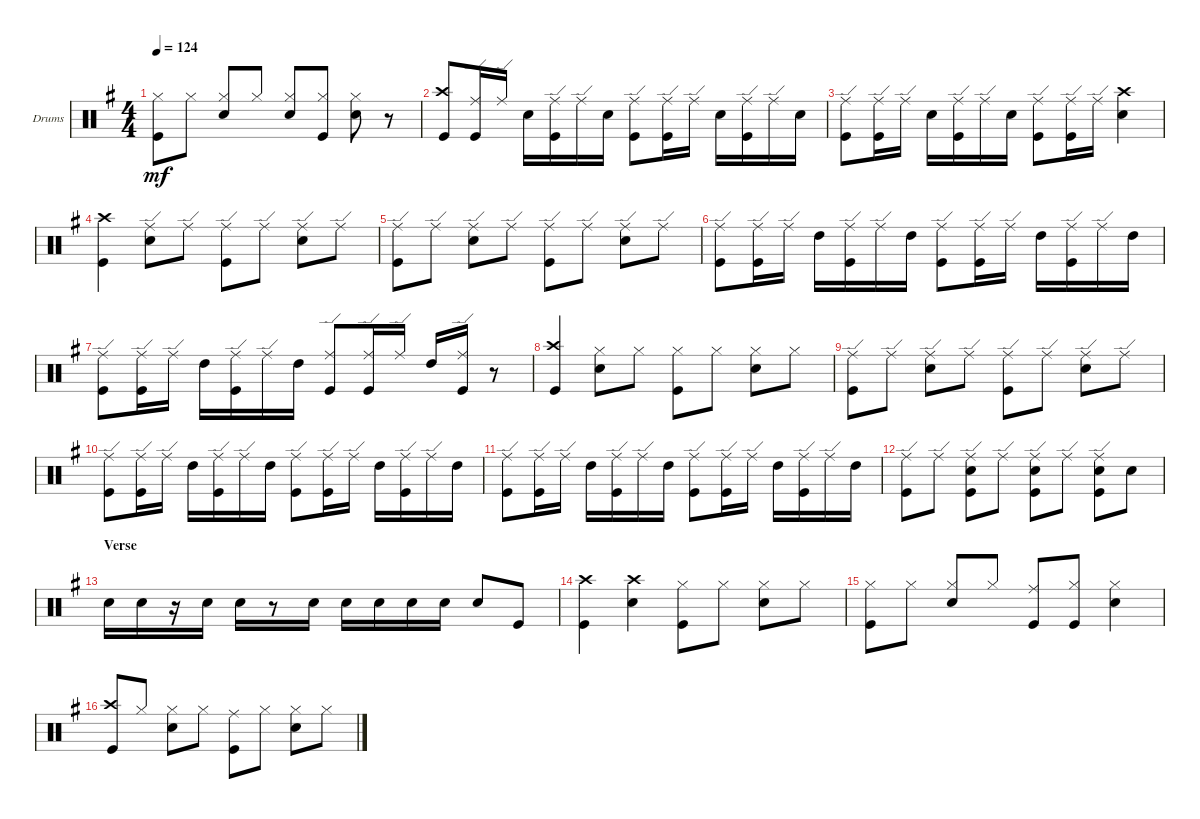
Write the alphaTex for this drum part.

\defaultSystemsLayout 4
\bracketExtendMode groupsimilarinstruments
\firstSystemTrackNameOrientation horizontal
\otherSystemsTrackNameOrientation horizontal
\track ("PETER CRISS" "Drums") {instrument percussion}
\staff {score}
\articulation defaults
\ts (4 4)
\tempo 124
\clef neutral
\scale
0.333333
\ks g
("Kick (hit)" "Hi-Hat (closed)").8{dy mf} "Hi-Hat (closed)".8 ("Snare (hit) 2" "Hi-Hat (closed)").8 "Hi-Hat (closed)".8 ("Hi-Hat (closed)" "Snare (hit) 2").8{beam invert} ("Hi-Hat (closed)" "Kick (hit)").8 ("Snare (hit) 2" "Hi-Hat (closed)").8 r.8 |
\scale
0.333333 ("Kick (hit)" "Crash high (hit)").8{beam invert} ("Ride (edge)" "Kick (hit)").16 "Ride (edge)".16 "Snare (hit) 2".16 ("Kick (hit)" "Ride (edge)").16 "Ride (edge)".16 "Snare (hit) 2".16 ("Ride (edge)" "Kick (hit)").8 ("Ride (edge)" "Kick (hit)").16 "Ride (edge)".16 "Snare (hit) 2".16 ("Kick (hit)" "Ride (edge)").16 "Ride (edge)".16 "Snare (hit) 2".16 |
\scale
0.333333 ("Kick (hit)" "Ride (edge)").8 ("Ride (edge)" "Kick (hit)").16 "Ride (edge)".16 "Snare (hit) 2".16 ("Kick (hit)" "Ride (edge)").16 "Ride (edge)".16 "Snare (hit) 2".16 ("Ride (edge)" "Kick (hit)").8 ("Ride (edge)" "Kick (hit)").16 "Ride (edge)".16 ("Snare (hit) 2" "Crash high (hit)").4 |
\scale
0.333333 ("Crash high (hit)" "Kick (hit)").4 ("Ride (edge)" "Snare (hit) 2").8 "Ride (edge)".8 ("Ride (edge)" "Kick (hit)").8 "Ride (edge)".8 ("Snare (hit) 2" "Ride (edge)").8 "Ride (edge)".8 |
\scale
0.333333 ("Ride (edge)" "Kick (hit)").8 "Ride (edge)".8 ("Snare (hit) 2" "Ride (edge)").8 "Ride (edge)".8 ("Ride (edge)" "Kick (hit)").8 "Ride (edge)".8 ("Snare (hit) 2" "Ride (edge)").8 "Ride (edge)".8 |
\scale
0.333333 ("Kick (hit)" "Ride (edge)").8 ("Ride (edge)" "Kick (hit)").16 "Ride (edge)".16 "High Tom (hit)".16 ("Kick (hit)" "Ride (edge)").16 "Ride (edge)".16 "High Tom (hit)".16 ("Ride (edge)" "Kick (hit)").8 ("Ride (edge)" "Kick (hit)").16 "Ride (edge)".16 "High Tom (hit)".16 ("Kick (hit)" "Ride (edge)").16 "Ride (edge)".16 "High Tom (hit)".16 |
\scale
0.333333 ("Kick (hit)" "Ride (edge)").8 ("Ride (edge)" "Kick (hit)").16 "Ride (edge)".16 "High Tom (hit)".16 ("Kick (hit)" "Ride (edge)").16 "Ride (edge)".16 "High Tom (hit)".16 ("Ride (edge)" "Kick (hit)").8 ("Ride (edge)" "Kick (hit)").16 "Ride (edge)".16 "High Tom (hit)".16{beam invert} ("Ride (edge)" "Kick (hit)").16 r.8 |
\scale
0.333333 ("Kick (hit)" "Crash high (hit)").4{beam invert} ("Hi-Hat (closed)" "Snare (hit) 2").8 "Hi-Hat (closed)".8 ("Hi-Hat (closed)" "Kick (hit)").8 "Hi-Hat (closed)".8 ("Hi-Hat (closed)" "Snare (hit) 2").8 "Hi-Hat (closed)".8 |
\scale
0.333333 ("Kick (hit)" "Ride (edge)").8 "Ride (edge)".8 ("Ride (edge)" "Snare (hit) 2").8 "Ride (edge)".8 ("Kick (hit)" "Ride (edge)").8 "Ride (edge)".8 ("Ride (edge)" "Snare (hit) 2").8 "Ride (edge)".8 |
\scale
0.333333 ("Kick (hit)" "Ride (edge)").8 ("Ride (edge)" "Kick (hit)").16 "Ride (edge)".16 "High Tom (hit)".16 ("Kick (hit)" "Ride (edge)").16 "Ride (edge)".16 "High Tom (hit)".16 ("Ride (edge)" "Kick (hit)").8 ("Ride (edge)" "Kick (hit)").16 "Ride (edge)".16 "High Tom (hit)".16 ("Kick (hit)" "Ride (edge)").16 "Ride (edge)".16 "High Tom (hit)".16 |
\scale
0.333333 ("Kick (hit)" "Ride (edge)").8 ("Ride (edge)" "Kick (hit)").16 "Ride (edge)".16 "High Tom (hit)".16 ("Kick (hit)" "Ride (edge)").16 "Ride (edge)".16 "High Tom (hit)".16 ("Ride (edge)" "Kick (hit)").8 ("Ride (edge)" "Kick (hit)").16 "Ride (edge)".16 "High Tom (hit)".16 ("Kick (hit)" "Ride (edge)").16 "Ride (edge)".16 "High Tom (hit)".16 |
\scale
0.333333 ("Ride (edge)" "Kick (hit)").8 "Ride (edge)".8 ("Ride (edge)" "Kick (hit)" "Snare (hit) 2").8 "Ride (edge)".8 ("Ride (edge)" "Snare (hit) 2" "Kick (hit)").8 "Ride (edge)".8 ("Ride (edge)" "Kick (hit)" "Snare (hit) 2").8 "Snare (hit) 2".8 |
\section ("" "Verse")
\scale
0.333333 "Snare (hit) 2".16 "Snare (hit) 2".16 r.16 "Snare (hit) 2".16 "Snare (hit) 2".16 r.8 "Snare (hit) 2".16 "Snare (hit) 2".16 "Snare (hit) 2".16 "Snare (hit) 2".16 "Snare (hit) 2".16 "Snare (hit) 2".8 "Kick (hit)".8 |
\scale
0.333333 ("Crash high (hit)" "Kick (hit)").4 ("Snare (hit) 2" "Crash high (hit)").4 ("Kick (hit)" "Hi-Hat (closed)").8 "Hi-Hat (closed)".8 ("Snare (hit) 2" "Hi-Hat (closed)").8 "Hi-Hat (closed)".8 |
\scale
0.333333 ("Kick (hit)" "Hi-Hat (closed)").8 "Hi-Hat (closed)".8 ("Hi-Hat (closed)" "Snare (hit) 2").8 "Hi-Hat (closed)".8 ("Ride (middle)" "Kick (hit)").8{beam invert} ("Hi-Hat (closed)" "Kick (hit)").8 ("Snare (hit) 2" "Hi-Hat (closed)").4 |
\scale
0.333333 ("Kick (hit)" "Crash high (hit)").8{beam invert} "Hi-Hat (closed)".8 ("Hi-Hat (closed)" "Snare (hit) 2").8 "Hi-Hat (closed)".8 ("Ride (middle)" "Kick (hit)").8 "Hi-Hat (closed)".8 ("Snare (hit) 2" "Hi-Hat (closed)").8 "Hi-Hat (closed)".8
